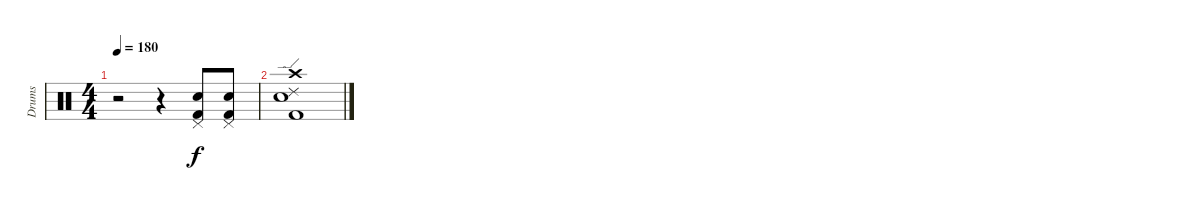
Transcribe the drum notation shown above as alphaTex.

\track ("Drums" "Drums") {instrument percussion}
\staff {score}
\articulation defaults
\ts (4 4)
\tempo 180
\clef neutral
\ks c
r.2{dy f} r.4 ("Pedal Hi-Hat (hit)" "Electric Snare (hit)" "Kick (hit) 2").8 ("Pedal Hi-Hat (hit)" "Electric Snare (hit)" "Kick (hit) 2").8 |
("Kick (hit) 2" "Ride (edge) 2" "Crash high (hit)" "Electric Snare (hit)").1
